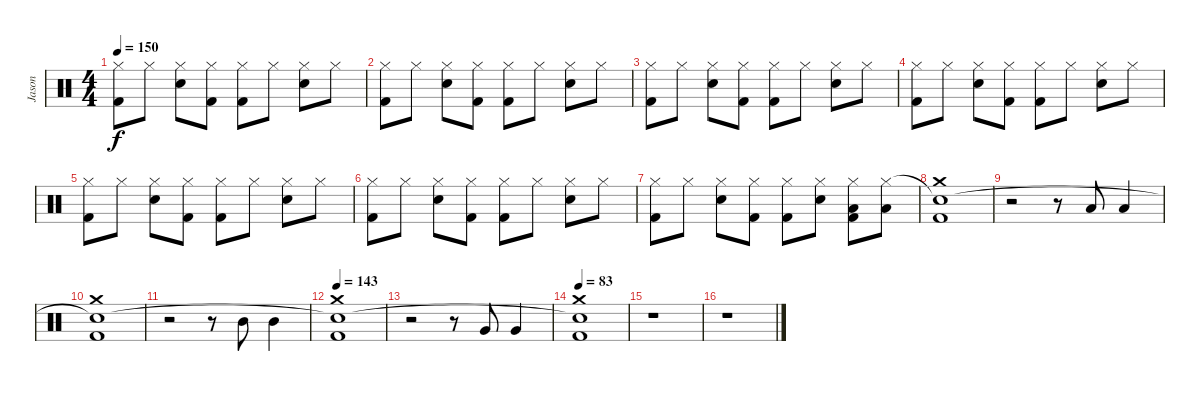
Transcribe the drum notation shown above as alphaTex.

\track ("Jason" "Jason") {instrument percussion}
\staff {score}
\articulation defaults
\ts (4 4)
\tempo 150
\clef neutral
\ks c
("Kick (hit) 2" "Hi-Hat (closed)").8{dy f} "Hi-Hat (closed)".8 ("Electric Snare (hit)" "Hi-Hat (closed)").8 ("Kick (hit) 2" "Hi-Hat (closed)").8 ("Kick (hit) 2" "Hi-Hat (closed)").8 "Hi-Hat (closed)".8 ("Electric Snare (hit)" "Hi-Hat (closed)").8 "Hi-Hat (closed)".8 |
("Kick (hit) 2" "Hi-Hat (closed)").8 "Hi-Hat (closed)".8 ("Electric Snare (hit)" "Hi-Hat (closed)").8 ("Kick (hit) 2" "Hi-Hat (closed)").8 ("Kick (hit) 2" "Hi-Hat (closed)").8 "Hi-Hat (closed)".8 ("Electric Snare (hit)" "Hi-Hat (closed)").8 "Hi-Hat (closed)".8 |
("Kick (hit) 2" "Hi-Hat (closed)").8 "Hi-Hat (closed)".8 ("Electric Snare (hit)" "Hi-Hat (closed)").8 ("Kick (hit) 2" "Hi-Hat (closed)").8 ("Kick (hit) 2" "Hi-Hat (closed)").8 "Hi-Hat (closed)".8 ("Electric Snare (hit)" "Hi-Hat (closed)").8 "Hi-Hat (closed)".8 |
("Kick (hit) 2" "Hi-Hat (closed)").8 "Hi-Hat (closed)".8 ("Electric Snare (hit)" "Hi-Hat (closed)").8 ("Kick (hit) 2" "Hi-Hat (closed)").8 ("Kick (hit) 2" "Hi-Hat (closed)").8 "Hi-Hat (closed)".8 ("Electric Snare (hit)" "Hi-Hat (closed)").8 "Hi-Hat (closed)".8 |
("Kick (hit) 2" "Hi-Hat (closed)").8 "Hi-Hat (closed)".8 ("Electric Snare (hit)" "Hi-Hat (closed)").8 ("Kick (hit) 2" "Hi-Hat (closed)").8 ("Kick (hit) 2" "Hi-Hat (closed)").8 "Hi-Hat (closed)".8 ("Electric Snare (hit)" "Hi-Hat (closed)").8 "Hi-Hat (closed)".8 |
("Kick (hit) 2" "Hi-Hat (closed)").8 "Hi-Hat (closed)".8 ("Electric Snare (hit)" "Hi-Hat (closed)").8 ("Kick (hit) 2" "Hi-Hat (closed)").8 ("Kick (hit) 2" "Hi-Hat (closed)").8 "Hi-Hat (closed)".8 ("Electric Snare (hit)" "Hi-Hat (closed)").8 "Hi-Hat (closed)".8 |
("Kick (hit) 2" "Hi-Hat (closed)").8 "Hi-Hat (closed)".8 ("Electric Snare (hit)" "Hi-Hat (closed)").8 ("Kick (hit) 2" "Hi-Hat (closed)").8 ("Kick (hit) 2" "Hi-Hat (closed)").8 ("Electric Snare (hit)" "Hi-Hat (closed)").8 ("Kick (hit) 2" "Low Tom (hit)" "Hi-Hat (closed)").8 ("Low Tom (hit)" "Hi-Hat (closed)").8 |
("Kick (hit) 2" "Snare (hit)"{t} "Crash medium (hit)").1 |
r.2 r.8 "Low Tom (hit)".8 "Low Tom (hit)".4 |
("Kick (hit) 2" "Snare (hit)"{t} "Crash medium (hit)").1 |
r.2 r.8 "Mid Tom (hit)".8 "Mid Tom (hit)".4 |
\tempo 143
("Kick (hit) 2" "Snare (hit)"{t} "Crash medium (hit)").1 |
r.2 r.8 "Very Low Tom (hit)".8 "Very Low Tom (hit)".4 |
\tempo 83
("Kick (hit) 2" "Snare (hit)"{t} "Crash medium (hit)").1 |
r.1 |
r.1
